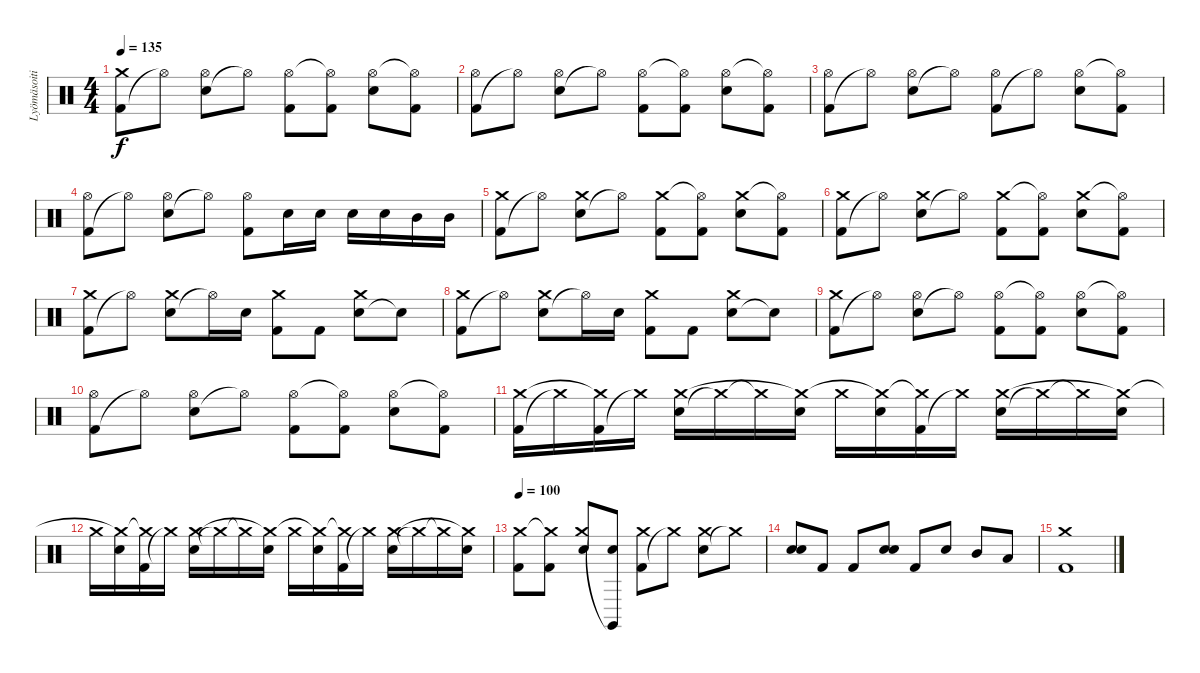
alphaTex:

\track ("Lyömäsoitin" "Lyömäsoiti") {instrument percussion}
\staff {score}
\articulation defaults
\ts (4 4)
\tempo 135
\clef neutral
\ks c
("Kick (hit) 2" "Crash medium (hit)").8{dy f} "Hi-Hat (open)"{t}.8 ("Electric Snare (hit)" "Hi-Hat (open)").8 "Hi-Hat (open)"{t}.8 ("Kick (hit) 2" "Hi-Hat (open)").8 ("Kick (hit) 2" "Hi-Hat (open)"{t}).8 ("Electric Snare (hit)" "Hi-Hat (open)").8 ("Kick (hit) 2" "Hi-Hat (open)"{t}).8 |
("Kick (hit) 2" "Hi-Hat (open)").8 "Hi-Hat (open)"{t}.8 ("Electric Snare (hit)" "Hi-Hat (open)").8 "Hi-Hat (open)"{t}.8 ("Kick (hit) 2" "Hi-Hat (open)").8 ("Kick (hit) 2" "Hi-Hat (open)"{t}).8 ("Electric Snare (hit)" "Hi-Hat (open)").8 ("Kick (hit) 2" "Hi-Hat (open)"{t}).8 |
("Kick (hit) 2" "Hi-Hat (open)").8 "Hi-Hat (open)"{t}.8 ("Electric Snare (hit)" "Hi-Hat (open)").8 "Hi-Hat (open)"{t}.8 ("Kick (hit) 2" "Hi-Hat (open)").8 "Hi-Hat (open)"{t}.8 ("Electric Snare (hit)" "Hi-Hat (open)").8 ("Kick (hit) 2" "Hi-Hat (open)"{t}).8 |
("Kick (hit) 2" "Hi-Hat (open)").8 "Hi-Hat (open)"{t}.8 ("Electric Snare (hit)" "Hi-Hat (open)").8 "Hi-Hat (open)"{t}.8 ("Kick (hit) 2" "Hi-Hat (open)").8 "Electric Snare (hit)".16 "Electric Snare (hit)".16 "Electric Snare (hit)".16 "Electric Snare (hit)".16 "Mid Tom (hit)".16 "Mid Tom (hit)".16 |
("Kick (hit) 2" "Crash medium (hit)").8 "Hi-Hat (open)"{t}.8 ("Electric Snare (hit)" "Crash medium (hit)").8 "Hi-Hat (open)"{t}.8 ("Kick (hit) 2" "Crash medium (hit)").8 ("Kick (hit) 2" "Hi-Hat (open)"{t}).8 ("Electric Snare (hit)" "Crash medium (hit)").8 ("Kick (hit) 2" "Hi-Hat (open)"{t}).8 |
("Kick (hit) 2" "Crash medium (hit)").8 "Hi-Hat (open)"{t}.8 ("Electric Snare (hit)" "Crash medium (hit)").8 "Hi-Hat (open)"{t}.8 ("Kick (hit) 2" "Crash medium (hit)").8 ("Kick (hit) 2" "Hi-Hat (open)"{t}).8 ("Electric Snare (hit)" "Crash medium (hit)").8 ("Kick (hit) 2" "Hi-Hat (open)"{t}).8 |
("Kick (hit) 2" "Crash medium (hit)").8 "Hi-Hat (open)"{t}.8 ("Electric Snare (hit)" "Crash medium (hit)").8 "Hi-Hat (open)"{t}.16 "Electric Snare (hit)".16 ("Kick (hit) 2" "Crash medium (hit)").8 "Kick (hit) 2".8 ("Electric Snare (hit)" "Crash medium (hit)").8 "Snare (hit)"{t}.8 |
("Kick (hit) 2" "Crash medium (hit)").8 "Hi-Hat (open)"{t}.8 ("Electric Snare (hit)" "Crash medium (hit)").8 "Hi-Hat (open)"{t}.16 "Electric Snare (hit)".16 ("Kick (hit) 2" "Crash medium (hit)").8 "Kick (hit) 2".8 ("Electric Snare (hit)" "Crash medium (hit)").8 "Snare (hit)"{t}.8 |
("Kick (hit) 2" "Crash medium (hit)").8 "Hi-Hat (open)"{t}.8 ("Electric Snare (hit)" "Hi-Hat (open)").8 "Hi-Hat (open)"{t}.8 ("Kick (hit) 2" "Hi-Hat (open)").8 ("Kick (hit) 2" "Hi-Hat (open)"{t}).8 ("Electric Snare (hit)" "Hi-Hat (open)").8 ("Kick (hit) 2" "Hi-Hat (open)"{t}).8 |
("Kick (hit) 2" "Hi-Hat (open)").8 "Hi-Hat (open)"{t}.8 ("Electric Snare (hit)" "Hi-Hat (open)").8 "Hi-Hat (open)"{t}.8 ("Kick (hit) 2" "Hi-Hat (open)").8 ("Kick (hit) 2" "Hi-Hat (open)"{t}).8 ("Electric Snare (hit)" "Hi-Hat (open)").8 ("Kick (hit) 2" "Hi-Hat (open)"{t}).8 |
("Kick (hit) 2" "Crash medium (hit)").16 "Crash medium (hit)"{t}.16 ("Kick (hit) 2" "Crash medium (hit)"{t}).16 "Crash medium (hit)"{t}.16 ("Electric Snare (hit)" "Crash medium (hit)").16 "Crash medium (hit)"{t}.16 "Crash medium (hit)"{t}.16 ("Electric Snare (hit)" "Crash medium (hit)"{t}).16 "Crash medium (hit)".16 ("Electric Snare (hit)" "Crash medium (hit)"{t}).16 ("Kick (hit) 2" "Crash medium (hit)"{t}).16 "Crash medium (hit)"{t}.16 ("Electric Snare (hit)" "Crash medium (hit)").16 "Crash medium (hit)"{t}.16 "Crash medium (hit)"{t}.16 ("Electric Snare (hit)" "Crash medium (hit)"{t}).16 |
"Crash medium (hit)".16 ("Electric Snare (hit)" "Crash medium (hit)"{t}).16 ("Kick (hit) 2" "Crash medium (hit)"{t}).16 "Crash medium (hit)"{t}.16 ("Electric Snare (hit)" "Crash medium (hit)").16 "Crash medium (hit)"{t}.16 "Crash medium (hit)"{t}.16 ("Electric Snare (hit)" "Crash medium (hit)"{t}).16 "Crash medium (hit)".16 ("Electric Snare (hit)" "Crash medium (hit)"{t}).16 ("Kick (hit) 2" "Crash medium (hit)"{t}).16 "Crash medium (hit)"{t}.16 ("Electric Snare (hit)" "Crash medium (hit)").16 "Crash medium (hit)"{t}.16 "Crash medium (hit)"{t}.16 ("Electric Snare (hit)" "Crash medium (hit)"{t}).16 |
\tempo 100
("Kick (hit) 2" "Crash medium (hit)").8 ("Kick (hit) 2" "Crash medium (hit)"{t}).8 ("Electric Snare (hit)" "Crash medium (hit)").8 ("Electric Snare (hit)" "Claves (hit)"{t}).8 ("Kick (hit) 2" "Crash medium (hit)").8 "Crash medium (hit)"{t}.8 ("Electric Snare (hit)" "Crash medium (hit)").8 "Crash medium (hit)"{t}.8 |
("Electric Snare (hit)" "Electric Snare (hit)").8 "Kick (hit) 2".8 "Kick (hit) 2".8 ("Electric Snare (hit)" "Electric Snare (hit)").8 "Kick (hit) 2".8 "Electric Snare (hit)".8 "Mid Tom (hit)".8 "Low Tom (hit)".8 |
("Kick (hit) 2" "Crash medium (hit)").1
